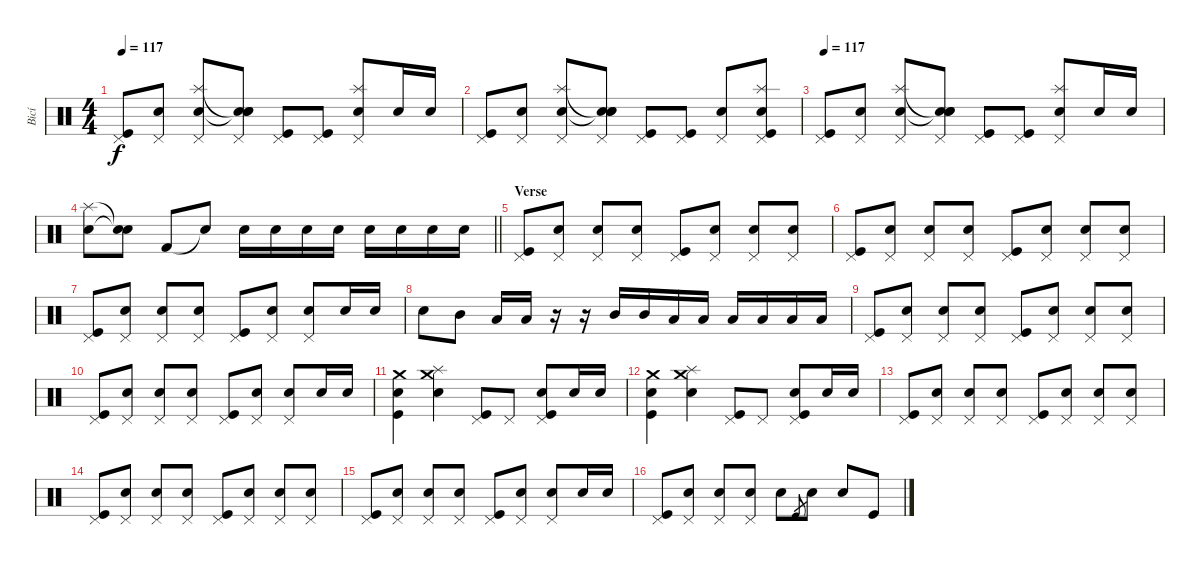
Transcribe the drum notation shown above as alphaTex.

\track ("Bicí" "Bicí") {instrument percussion}
\staff {score}
\articulation defaults
\ts (4 4)
\tempo 117
\clef neutral
\ks c
("Pedal Hi-Hat (hit)" "Kick (hit)").8{dy f} ("Pedal Hi-Hat (hit)" "Snare (hit)").8 ("Pedal Hi-Hat (hit)" "Splash (hit)" "Electric Snare (hit)").8 ("Pedal Hi-Hat (hit)" "Snare (hit)"{t} "Snare (hit)"{t} "Snare (hit)").8 ("Pedal Hi-Hat (hit)" "Kick (hit)").8 ("Pedal Hi-Hat (hit)" "Kick (hit)").8 ("Pedal Hi-Hat (hit)" "Splash (hit)" "Electric Snare (hit)").8 "Electric Snare (hit)".16 "Electric Snare (hit)".16 |
("Pedal Hi-Hat (hit)" "Kick (hit)").8 ("Pedal Hi-Hat (hit)" "Snare (hit)").8 ("Pedal Hi-Hat (hit)" "Splash (hit)" "Electric Snare (hit)").8 ("Pedal Hi-Hat (hit)" "Snare (hit)"{t} "Snare (hit)"{t} "Snare (hit)").8 ("Pedal Hi-Hat (hit)" "Kick (hit)").8 ("Pedal Hi-Hat (hit)" "Kick (hit)").8 ("Pedal Hi-Hat (hit)" "Snare (hit)").8 ("Pedal Hi-Hat (hit)" "Electric Snare (hit)" "Splash (hit)" "Kick (hit)").8 |
\tempo 117
("Pedal Hi-Hat (hit)" "Kick (hit)").8 ("Pedal Hi-Hat (hit)" "Snare (hit)").8 ("Pedal Hi-Hat (hit)" "Splash (hit)" "Electric Snare (hit)").8 ("Pedal Hi-Hat (hit)" "Snare (hit)"{t} "Snare (hit)"{t} "Snare (hit)").8 ("Pedal Hi-Hat (hit)" "Kick (hit)").8 ("Pedal Hi-Hat (hit)" "Kick (hit)").8 ("Pedal Hi-Hat (hit)" "Splash (hit)" "Electric Snare (hit)").8 "Electric Snare (hit)".16 "Electric Snare (hit)".16 |
\barLineRight lightlight
("Splash (hit)" "Electric Snare (hit)").8 ("Snare (hit)"{t} "Snare (hit)"{t}).8 "Kick (hit) 2".8 "Snare (hit)"{t}.8 "Electric Snare (hit)".16 "Electric Snare (hit)".16 "Electric Snare (hit)".16 "Electric Snare (hit)".16 "Electric Snare (hit)".16 "Electric Snare (hit)".16 "Electric Snare (hit)".16 "Electric Snare (hit)".16 |
\section ("" "Verse")
("Pedal Hi-Hat (hit)" "Kick (hit)").8 ("Pedal Hi-Hat (hit)" "Snare (hit)").8 ("Pedal Hi-Hat (hit)" "Electric Snare (hit)").8 ("Pedal Hi-Hat (hit)" "Snare (hit)").8 ("Pedal Hi-Hat (hit)" "Kick (hit)").8 ("Pedal Hi-Hat (hit)" "Snare (hit)").8 ("Pedal Hi-Hat (hit)" "Electric Snare (hit)").8 ("Pedal Hi-Hat (hit)" "Snare (hit)").8 |
("Pedal Hi-Hat (hit)" "Kick (hit)").8 ("Pedal Hi-Hat (hit)" "Snare (hit)").8 ("Pedal Hi-Hat (hit)" "Electric Snare (hit)").8 ("Pedal Hi-Hat (hit)" "Snare (hit)").8 ("Pedal Hi-Hat (hit)" "Kick (hit)").8 ("Pedal Hi-Hat (hit)" "Snare (hit)").8 ("Pedal Hi-Hat (hit)" "Electric Snare (hit)").8 ("Pedal Hi-Hat (hit)" "Snare (hit)").8 |
("Pedal Hi-Hat (hit)" "Kick (hit)").8 ("Pedal Hi-Hat (hit)" "Snare (hit)").8 ("Pedal Hi-Hat (hit)" "Electric Snare (hit)").8 ("Pedal Hi-Hat (hit)" "Snare (hit)").8 ("Pedal Hi-Hat (hit)" "Kick (hit)").8 ("Pedal Hi-Hat (hit)" "Snare (hit)").8 ("Pedal Hi-Hat (hit)" "Electric Snare (hit)").8 "Electric Snare (hit)".16 "Electric Snare (hit)".16 |
"Snare (hit)".8 "Mid Tom (hit)".8 "Low Tom (hit)".16 "Low Tom (hit)".16 r.16 r.16 "Mid Tom (hit)".16 "Mid Tom (hit)".16 "Low Tom (hit)".16 "Low Tom (hit)".16 "Low Tom (hit)".16 "Low Tom (hit)".16 "Low Tom (hit)".16 "Low Tom (hit)".16 |
("Pedal Hi-Hat (hit)" "Kick (hit)").8 ("Pedal Hi-Hat (hit)" "Snare (hit)").8 ("Pedal Hi-Hat (hit)" "Electric Snare (hit)").8 ("Pedal Hi-Hat (hit)" "Snare (hit)").8 ("Pedal Hi-Hat (hit)" "Kick (hit)").8 ("Pedal Hi-Hat (hit)" "Snare (hit)").8 ("Pedal Hi-Hat (hit)" "Electric Snare (hit)").8 ("Pedal Hi-Hat (hit)" "Snare (hit)").8 |
("Pedal Hi-Hat (hit)" "Kick (hit)").8 ("Pedal Hi-Hat (hit)" "Snare (hit)").8 ("Pedal Hi-Hat (hit)" "Electric Snare (hit)").8 ("Pedal Hi-Hat (hit)" "Snare (hit)").8 ("Pedal Hi-Hat (hit)" "Kick (hit)").8 ("Pedal Hi-Hat (hit)" "Snare (hit)").8 ("Pedal Hi-Hat (hit)" "Electric Snare (hit)").8 "Electric Snare (hit)".16 "Electric Snare (hit)".16 |
("Electric Snare (hit)" "Crash medium (hit)" "Kick (hit)").4 ("Electric Snare (hit)" "Crash medium (hit)" "Splash (hit)").4 ("Pedal Hi-Hat (hit)" "Kick (hit)").8 "Pedal Hi-Hat (hit)".8 ("Electric Snare (hit)" "Pedal Hi-Hat (hit)" "Kick (hit)").8 "Electric Snare (hit)".16 "Electric Snare (hit)".16 |
("Electric Snare (hit)" "Crash medium (hit)" "Kick (hit)").4 ("Electric Snare (hit)" "Crash medium (hit)" "Splash (hit)").4 ("Pedal Hi-Hat (hit)" "Kick (hit)").8 "Pedal Hi-Hat (hit)".8 ("Electric Snare (hit)" "Pedal Hi-Hat (hit)" "Kick (hit)").8 "Electric Snare (hit)".16 "Electric Snare (hit)".16 |
("Pedal Hi-Hat (hit)" "Kick (hit)").8 ("Pedal Hi-Hat (hit)" "Snare (hit)").8 ("Pedal Hi-Hat (hit)" "Electric Snare (hit)").8 ("Pedal Hi-Hat (hit)" "Snare (hit)").8 ("Pedal Hi-Hat (hit)" "Kick (hit)").8 ("Pedal Hi-Hat (hit)" "Snare (hit)").8 ("Pedal Hi-Hat (hit)" "Electric Snare (hit)").8 ("Pedal Hi-Hat (hit)" "Snare (hit)").8 |
("Pedal Hi-Hat (hit)" "Kick (hit)").8 ("Pedal Hi-Hat (hit)" "Snare (hit)").8 ("Pedal Hi-Hat (hit)" "Electric Snare (hit)").8 ("Pedal Hi-Hat (hit)" "Snare (hit)").8 ("Pedal Hi-Hat (hit)" "Kick (hit)").8 ("Pedal Hi-Hat (hit)" "Snare (hit)").8 ("Pedal Hi-Hat (hit)" "Electric Snare (hit)").8 ("Pedal Hi-Hat (hit)" "Snare (hit)").8 |
("Pedal Hi-Hat (hit)" "Kick (hit)").8 ("Pedal Hi-Hat (hit)" "Snare (hit)").8 ("Pedal Hi-Hat (hit)" "Electric Snare (hit)").8 ("Pedal Hi-Hat (hit)" "Snare (hit)").8 ("Pedal Hi-Hat (hit)" "Kick (hit)").8 ("Pedal Hi-Hat (hit)" "Snare (hit)").8 ("Pedal Hi-Hat (hit)" "Electric Snare (hit)").8 "Electric Snare (hit)".16 "Electric Snare (hit)".16 |
("Pedal Hi-Hat (hit)" "Kick (hit)").8 ("Pedal Hi-Hat (hit)" "Snare (hit)").8 ("Pedal Hi-Hat (hit)" "Electric Snare (hit)").8 ("Pedal Hi-Hat (hit)" "Snare (hit)").8 "Snare (hit)".8 "Kick (hit)".8{gr} "Electric Snare (hit)".8 "Snare (hit)".8 "Kick (hit)".8
